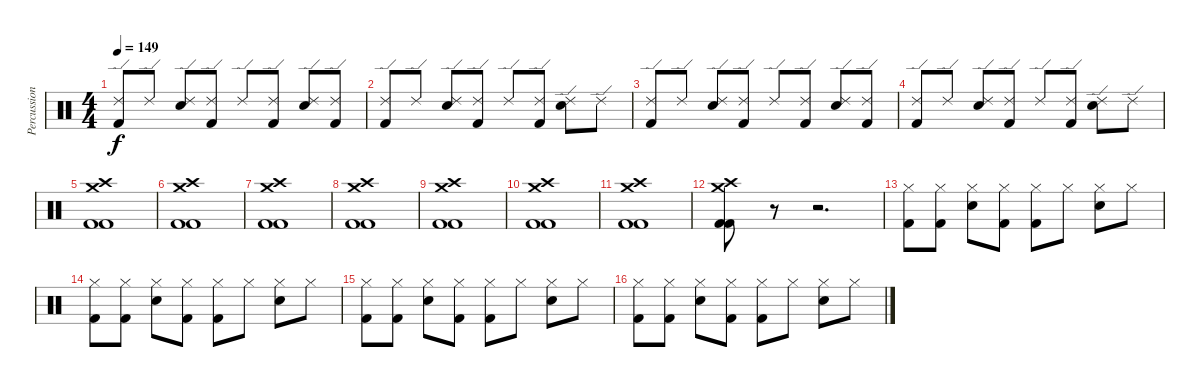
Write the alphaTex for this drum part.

\track ("Percussion" "Percussion") {instrument percussion}
\staff {score}
\articulation defaults
\ts (4 4)
\tempo 149
\clef neutral
\ks c
("Ride (edge) 2" "Kick (hit) 2").8{dy f} "Ride (edge) 2".8 ("Ride (edge) 2" "Electric Snare (hit)").8 ("Ride (edge) 2" "Kick (hit) 2").8 "Ride (edge) 2".8 ("Ride (edge) 2" "Kick (hit) 2").8 ("Ride (edge) 2" "Electric Snare (hit)").8 ("Ride (edge) 2" "Kick (hit) 2").8 |
("Ride (edge) 2" "Kick (hit) 2").8 "Ride (edge) 2".8 ("Ride (edge) 2" "Electric Snare (hit)").8 ("Ride (edge) 2" "Kick (hit) 2").8 "Ride (edge) 2".8 ("Ride (edge) 2" "Kick (hit) 2").8 ("Ride (edge) 2" "Electric Snare (hit)").8 "Ride (edge) 2".8 |
("Ride (edge) 2" "Kick (hit) 2").8 "Ride (edge) 2".8 ("Ride (edge) 2" "Electric Snare (hit)").8 ("Ride (edge) 2" "Kick (hit) 2").8 "Ride (edge) 2".8 ("Ride (edge) 2" "Kick (hit) 2").8 ("Ride (edge) 2" "Electric Snare (hit)").8 ("Ride (edge) 2" "Kick (hit) 2").8 |
("Ride (edge) 2" "Kick (hit) 2").8 "Ride (edge) 2".8 ("Ride (edge) 2" "Electric Snare (hit)").8 ("Ride (edge) 2" "Kick (hit) 2").8 "Ride (edge) 2".8 ("Ride (edge) 2" "Kick (hit) 2").8 ("Ride (edge) 2" "Electric Snare (hit)").8 "Ride (edge) 2".8 |
("Crash high (hit)" "Crash medium (hit)" "Kick (hit) 2" "Kick (hit) 2").1 |
("Crash high (hit)" "Crash medium (hit)" "Kick (hit) 2" "Kick (hit) 2").1 |
("Crash high (hit)" "Crash medium (hit)" "Kick (hit) 2" "Kick (hit) 2").1 |
("Crash high (hit)" "Crash medium (hit)" "Kick (hit) 2" "Kick (hit) 2").1 |
("Crash high (hit)" "Crash medium (hit)" "Kick (hit) 2" "Kick (hit) 2").1 |
("Crash high (hit)" "Crash medium (hit)" "Kick (hit) 2" "Kick (hit) 2").1 |
("Crash high (hit)" "Crash medium (hit)" "Kick (hit) 2" "Kick (hit) 2").1 |
("Crash high (hit)" "Crash medium (hit)" "Kick (hit) 2" "Kick (hit) 2").8 r.8 r.2{d} |
("Hi-Hat (closed)" "Kick (hit) 2").8 ("Hi-Hat (closed)" "Kick (hit) 2").8 ("Hi-Hat (closed)" "Electric Snare (hit)").8 ("Hi-Hat (closed)" "Kick (hit) 2").8 ("Hi-Hat (closed)" "Kick (hit) 2").8 "Hi-Hat (closed)".8 ("Hi-Hat (closed)" "Electric Snare (hit)").8 "Hi-Hat (closed)".8 |
("Hi-Hat (closed)" "Kick (hit) 2").8 ("Hi-Hat (closed)" "Kick (hit) 2").8 ("Hi-Hat (closed)" "Electric Snare (hit)").8 ("Hi-Hat (closed)" "Kick (hit) 2").8 ("Hi-Hat (closed)" "Kick (hit) 2").8 "Hi-Hat (closed)".8 ("Hi-Hat (closed)" "Electric Snare (hit)").8 "Hi-Hat (closed)".8 |
("Hi-Hat (closed)" "Kick (hit) 2").8 ("Hi-Hat (closed)" "Kick (hit) 2").8 ("Hi-Hat (closed)" "Electric Snare (hit)").8 ("Hi-Hat (closed)" "Kick (hit) 2").8 ("Hi-Hat (closed)" "Kick (hit) 2").8 "Hi-Hat (closed)".8 ("Hi-Hat (closed)" "Electric Snare (hit)").8 "Hi-Hat (closed)".8 |
("Hi-Hat (closed)" "Kick (hit) 2").8 ("Hi-Hat (closed)" "Kick (hit) 2").8 ("Hi-Hat (closed)" "Electric Snare (hit)").8 ("Hi-Hat (closed)" "Kick (hit) 2").8 ("Hi-Hat (closed)" "Kick (hit) 2").8 "Hi-Hat (closed)".8 ("Hi-Hat (closed)" "Electric Snare (hit)").8 "Hi-Hat (closed)".8
